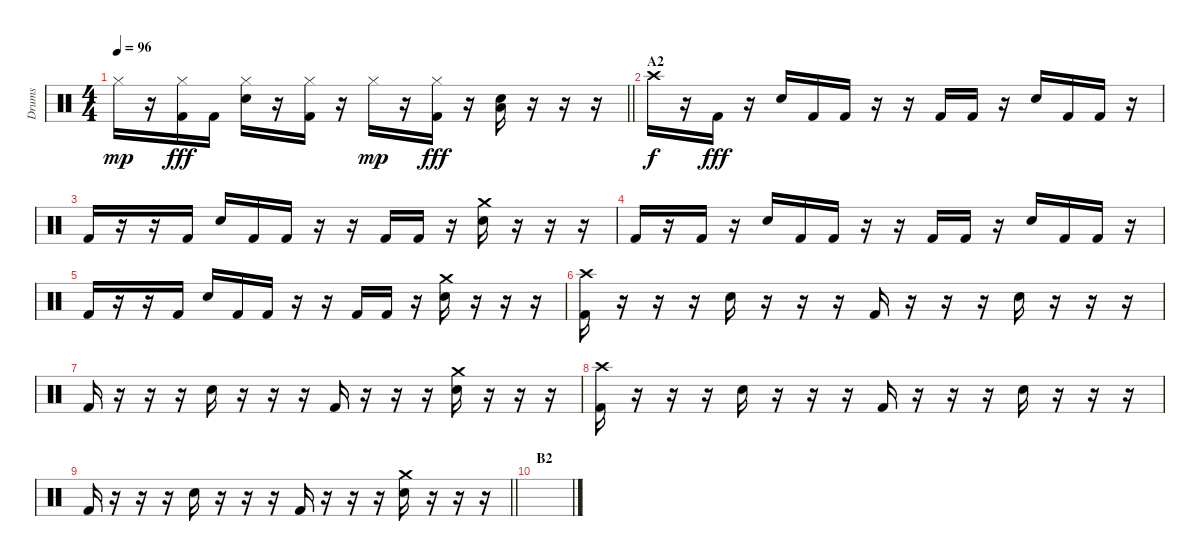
\track ("Drums" "Drums") {instrument percussion}
\staff
\articulation defaults
\ts (4 4)
\tempo 96
\clef neutral
\barLineRight lightlight
\ks c "Hi-Hat (closed)".16{dy mp}
r.16 ("Hi-Hat (closed)" "Kick (hit) 2").16{dy fff} "Kick (hit) 2".16 ("Hi-Hat (closed)" "Electric Snare (hit)").16 r.16 ("Hi-Hat (closed)" "Kick (hit) 2").16 r.16 "Hi-Hat (closed)".16{dy mp} r.16 ("Hi-Hat (closed)" "Kick (hit) 2").16{dy fff} r.16 ("Low Floor Tom (hit)" "Electric Snare (hit)").16 r.16 r.16 r.16 |
\section ("" "A2")
"Crash high (hit)".16{dy f} r.16 "Kick (hit) 2".16{dy fff} r.16 "Electric Snare (hit)".16 "Kick (hit) 2".16 "Kick (hit) 2".16 r.16 r.16 "Kick (hit) 2".16 "Kick (hit) 2".16 r.16 "Electric Snare (hit)".16 "Kick (hit) 2".16 "Kick (hit) 2".16 r.16 |
"Kick (hit) 2".16 r.16 r.16 "Kick (hit) 2".16 "Electric Snare (hit)".16 "Kick (hit) 2".16 "Kick (hit) 2".16 r.16 r.16 "Kick (hit) 2".16 "Kick (hit) 2".16 r.16 ("Crash medium (hit)" "Electric Snare (hit)").16 r.16 r.16 r.16 |
"Kick (hit) 2".16 r.16 "Kick (hit) 2".16 r.16 "Electric Snare (hit)".16 "Kick (hit) 2".16 "Kick (hit) 2".16 r.16 r.16 "Kick (hit) 2".16 "Kick (hit) 2".16 r.16 "Electric Snare (hit)".16 "Kick (hit) 2".16 "Kick (hit) 2".16 r.16 |
"Kick (hit) 2".16 r.16 r.16 "Kick (hit) 2".16 "Electric Snare (hit)".16 "Kick (hit) 2".16 "Kick (hit) 2".16 r.16 r.16 "Kick (hit) 2".16 "Kick (hit) 2".16 r.16 ("Crash medium (hit)" "Electric Snare (hit)").16 r.16 r.16 r.16 |
("Crash high (hit)" "Kick (hit) 2").16 r.16 r.16 r.16 "Electric Snare (hit)".16 r.16 r.16 r.16 "Kick (hit) 2".16 r.16 r.16 r.16 "Electric Snare (hit)".16 r.16 r.16 r.16 |
"Kick (hit) 2".16 r.16 r.16 r.16 "Electric Snare (hit)".16 r.16 r.16 r.16 "Kick (hit) 2".16 r.16 r.16 r.16 ("Crash medium (hit)" "Electric Snare (hit)").16 r.16 r.16 r.16 |
("Crash high (hit)" "Kick (hit) 2").16 r.16 r.16 r.16 "Electric Snare (hit)".16 r.16 r.16 r.16 "Kick (hit) 2".16 r.16 r.16 r.16 "Electric Snare (hit)".16 r.16 r.16 r.16 |
\barLineRight lightlight "Kick (hit) 2".16
r.16 r.16 r.16 "Electric Snare (hit)".16 r.16 r.16 r.16 "Kick (hit) 2".16 r.16 r.16 r.16 ("Crash medium (hit)" "Electric Snare (hit)").16 r.16 r.16 r.16 |
\section ("" "B2")
